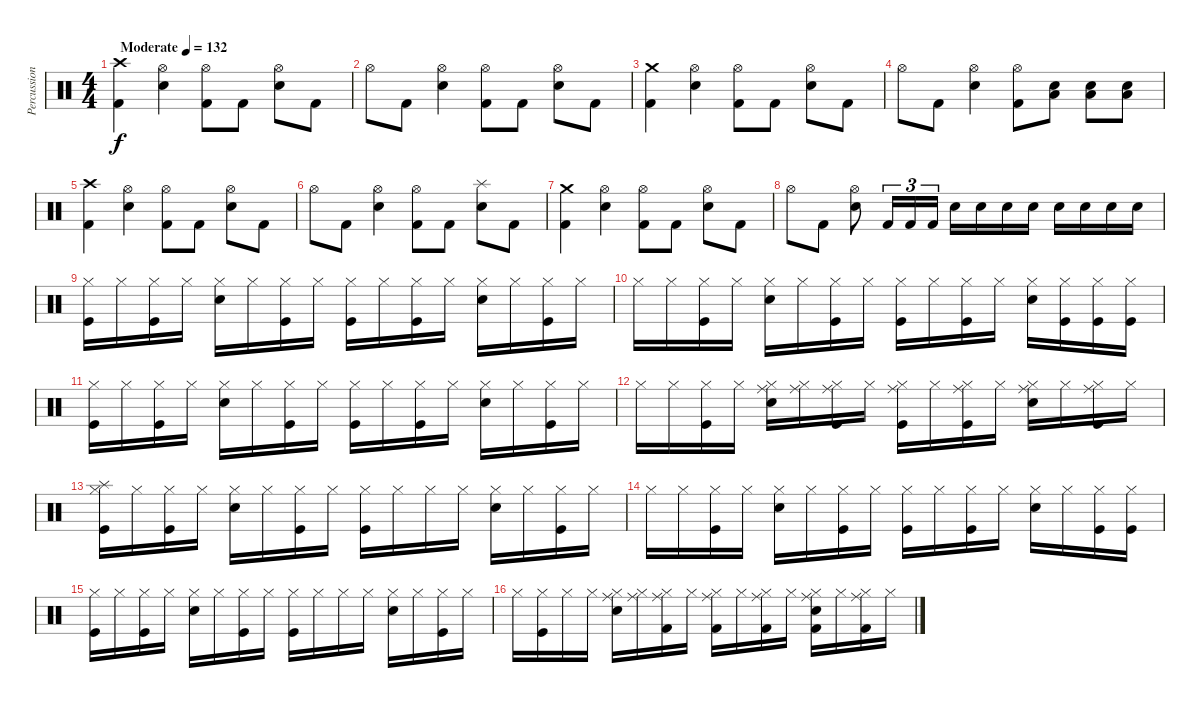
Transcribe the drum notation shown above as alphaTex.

\track ("Percussion" "Percussion") {instrument percussion}
\staff {score}
\articulation defaults
\ts (4 4)
\tempo (132 "Moderate")
\clef neutral
\ks c
("Crash high (hit)" "Kick (hit) 2").4{dy f} ("Hi-Hat (open)" "Electric Snare (hit)").4 ("Hi-Hat (open)" "Kick (hit) 2").8 "Kick (hit) 2".8 ("Hi-Hat (open)" "Electric Snare (hit)").8 "Kick (hit) 2".8 |
"Hi-Hat (open)".8 "Kick (hit) 2".8 ("Hi-Hat (open)" "Electric Snare (hit)").4 ("Hi-Hat (open)" "Kick (hit) 2").8 "Kick (hit) 2".8 ("Hi-Hat (open)" "Electric Snare (hit)").8 "Kick (hit) 2".8 |
("Crash medium (hit)" "Kick (hit) 2").4 ("Hi-Hat (open)" "Electric Snare (hit)").4 ("Hi-Hat (open)" "Kick (hit) 2").8 "Kick (hit) 2".8 ("Hi-Hat (open)" "Electric Snare (hit)").8 "Kick (hit) 2".8 |
"Hi-Hat (open)".8 "Kick (hit) 2".8 ("Hi-Hat (open)" "Electric Snare (hit)").4 ("Hi-Hat (open)" "Kick (hit) 2").8 ("Electric Snare (hit)" "Low Floor Tom (hit)").8 ("Electric Snare (hit)" "Low Floor Tom (hit)").8 ("Electric Snare (hit)" "Low Floor Tom (hit)").8 |
("Crash high (hit)" "Kick (hit) 2").4 ("Hi-Hat (open)" "Electric Snare (hit)").4 ("Hi-Hat (open)" "Kick (hit) 2").8 "Kick (hit) 2".8 ("Hi-Hat (open)" "Electric Snare (hit)").8 "Kick (hit) 2".8 |
"Hi-Hat (open)".8 "Kick (hit) 2".8 ("Hi-Hat (open)" "Electric Snare (hit)").4 ("Hi-Hat (open)" "Kick (hit) 2").8 "Kick (hit) 2".8 ("Splash (hit)" "Electric Snare (hit)").8 "Kick (hit) 2".8 |
("Crash medium (hit)" "Kick (hit) 2").4 ("Hi-Hat (open)" "Electric Snare (hit)").4 ("Hi-Hat (open)" "Kick (hit) 2").8 "Kick (hit) 2".8 ("Hi-Hat (open)" "Electric Snare (hit)").8 "Kick (hit) 2".8 |
"Hi-Hat (open)".8 "Kick (hit) 2".8 ("Hi-Hat (open)" "Electric Snare (hit)").8 "Kick (hit) 2".16{tu (3 2)} "Kick (hit) 2".16{tu (3 2)} "Kick (hit) 2".16{tu (3 2)} "Electric Snare (hit)".16 "Electric Snare (hit)".16 "Electric Snare (hit)".16 "Electric Snare (hit)".16 "Electric Snare (hit)".16 "Electric Snare (hit)".16 "Electric Snare (hit)".16 "Electric Snare (hit)".16 |
("Hi-Hat (closed)" "Kick (hit)").16 "Hi-Hat (closed)".16 ("Hi-Hat (closed)" "Kick (hit)").16 "Hi-Hat (closed)".16 ("Hi-Hat (closed)" "Hand Clap (hit)").16 "Hi-Hat (closed)".16 ("Hi-Hat (closed)" "Kick (hit)").16 "Hi-Hat (closed)".16 ("Hi-Hat (closed)" "Kick (hit)").16 "Hi-Hat (closed)".16 ("Hi-Hat (closed)" "Kick (hit)").16 "Hi-Hat (closed)".16 ("Hi-Hat (closed)" "Hand Clap (hit)").16 "Hi-Hat (closed)".16 ("Hi-Hat (closed)" "Kick (hit)").16 "Hi-Hat (closed)".16 |
"Hi-Hat (closed)".16 "Hi-Hat (closed)".16 ("Hi-Hat (closed)" "Kick (hit)").16 "Hi-Hat (closed)".16 ("Hi-Hat (closed)" "Hand Clap (hit)").16 "Hi-Hat (closed)".16 ("Hi-Hat (closed)" "Kick (hit)").16 "Hi-Hat (closed)".16 ("Hi-Hat (closed)" "Kick (hit)").16 "Hi-Hat (closed)".16 ("Hi-Hat (closed)" "Kick (hit)").16 "Hi-Hat (closed)".16 ("Hi-Hat (closed)" "Hand Clap (hit)").16 ("Hi-Hat (closed)" "Kick (hit)").16 ("Hi-Hat (closed)" "Kick (hit)").16 ("Hi-Hat (closed)" "Kick (hit)").16 |
("Hi-Hat (closed)" "Kick (hit)").16 "Hi-Hat (closed)".16 ("Hi-Hat (closed)" "Kick (hit)").16 "Hi-Hat (closed)".16 ("Hi-Hat (closed)" "Hand Clap (hit)").16 "Hi-Hat (closed)".16 ("Hi-Hat (closed)" "Kick (hit)").16 "Hi-Hat (closed)".16 ("Hi-Hat (closed)" "Kick (hit)").16 "Hi-Hat (closed)".16 ("Hi-Hat (closed)" "Kick (hit)").16 "Hi-Hat (closed)".16 ("Hi-Hat (closed)" "Hand Clap (hit)").16 "Hi-Hat (closed)".16 ("Hi-Hat (closed)" "Kick (hit)").16 "Hi-Hat (closed)".16 |
"Hi-Hat (closed)".16 "Hi-Hat (closed)".16 ("Hi-Hat (closed)" "Kick (hit)").16 "Hi-Hat (closed)".16 ("Hi-Hat (closed)" "Hand Clap (hit)" "Ride (middle)").16 ("Hi-Hat (closed)" "Ride (middle)").16 ("Hi-Hat (closed)" "Ride (middle)" "Kick (hit)").16 "Hi-Hat (closed)".16 ("Hi-Hat (closed)" "Ride (middle)" "Kick (hit)").16 "Hi-Hat (closed)".16 ("Hi-Hat (closed)" "Ride (middle)" "Kick (hit)").16 "Hi-Hat (closed)".16 ("Hi-Hat (closed)" "Hand Clap (hit)" "Ride (middle)").16 "Hi-Hat (closed)".16 ("Hi-Hat (closed)" "Ride (middle)" "Kick (hit)").16 "Hi-Hat (closed)".16 |
("Hi-Hat (closed)" "Splash (hit)" "Kick (hit)").16 "Hi-Hat (closed)".16 ("Hi-Hat (closed)" "Kick (hit)").16 "Hi-Hat (closed)".16 ("Hi-Hat (closed)" "Hand Clap (hit)").16 "Hi-Hat (closed)".16 ("Hi-Hat (closed)" "Kick (hit)").16 "Hi-Hat (closed)".16 ("Hi-Hat (closed)" "Kick (hit)").16 "Hi-Hat (closed)".16 "Hi-Hat (closed)".16 "Hi-Hat (closed)".16 ("Hi-Hat (closed)" "Hand Clap (hit)").16 "Hi-Hat (closed)".16 ("Hi-Hat (closed)" "Kick (hit)").16 "Hi-Hat (closed)".16 |
"Hi-Hat (closed)".16 "Hi-Hat (closed)".16 ("Hi-Hat (closed)" "Kick (hit)").16 "Hi-Hat (closed)".16 ("Hi-Hat (closed)" "Hand Clap (hit)").16 "Hi-Hat (closed)".16 ("Hi-Hat (closed)" "Kick (hit)").16 "Hi-Hat (closed)".16 ("Hi-Hat (closed)" "Kick (hit)").16 "Hi-Hat (closed)".16 ("Hi-Hat (closed)" "Kick (hit)").16 "Hi-Hat (closed)".16 ("Hi-Hat (closed)" "Hand Clap (hit)").16 "Hi-Hat (closed)".16 ("Hi-Hat (closed)" "Kick (hit)").16 ("Hi-Hat (closed)" "Kick (hit)").16 |
("Hi-Hat (closed)" "Kick (hit)").16 "Hi-Hat (closed)".16 ("Hi-Hat (closed)" "Kick (hit)").16 "Hi-Hat (closed)".16 ("Hi-Hat (closed)" "Hand Clap (hit)").16 "Hi-Hat (closed)".16 ("Hi-Hat (closed)" "Kick (hit)").16 "Hi-Hat (closed)".16 ("Hi-Hat (closed)" "Kick (hit)").16 "Hi-Hat (closed)".16 "Hi-Hat (closed)".16 "Hi-Hat (closed)".16 ("Hi-Hat (closed)" "Hand Clap (hit)").16 "Hi-Hat (closed)".16 ("Hi-Hat (closed)" "Kick (hit)").16 "Hi-Hat (closed)".16 |
"Hi-Hat (closed)".16 ("Hi-Hat (closed)" "Kick (hit)").16 "Hi-Hat (closed)".16 "Hi-Hat (closed)".16 ("Hi-Hat (closed)" "Hand Clap (hit)" "Ride (middle)").16 ("Hi-Hat (closed)" "Ride (middle)").16 ("Hi-Hat (closed)" "Ride (middle)" "Kick (hit) 2").16 "Hi-Hat (closed)".16 ("Hi-Hat (closed)" "Ride (middle)" "Kick (hit) 2").16 "Hi-Hat (closed)".16 ("Hi-Hat (closed)" "Ride (middle)" "Kick (hit) 2").16 "Hi-Hat (closed)".16 ("Hi-Hat (closed)" "Hand Clap (hit)" "Ride (middle)" "Kick (hit) 2").16 "Hi-Hat (closed)".16 ("Hi-Hat (closed)" "Ride (middle)" "Kick (hit) 2").16 "Hi-Hat (closed)".16
